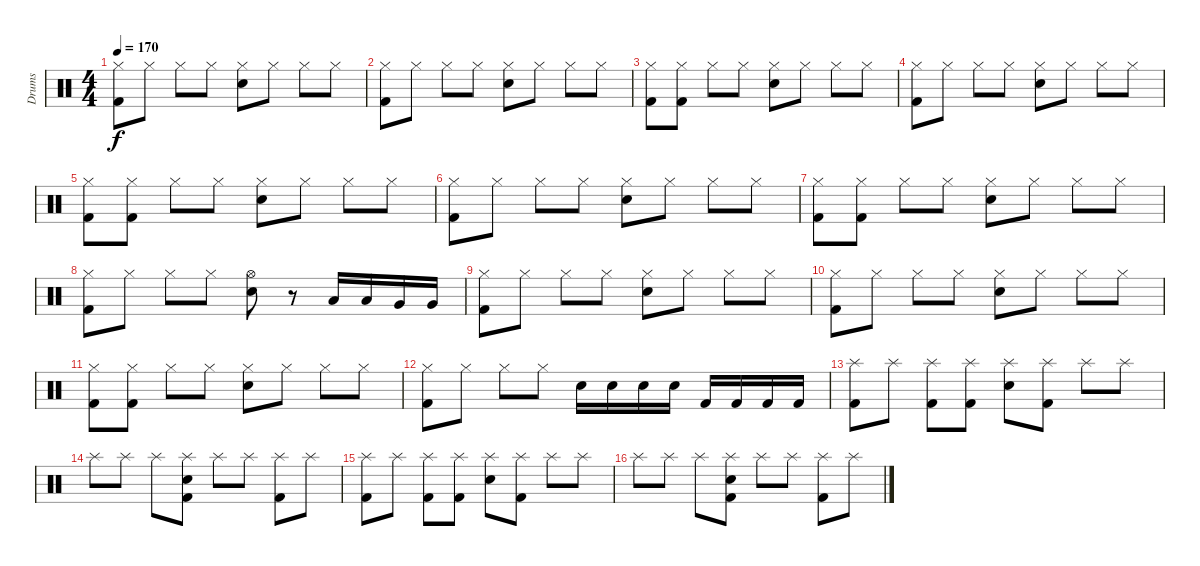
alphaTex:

\track ("Drums" "Drums") {instrument percussion}
\staff {score}
\articulation defaults
\ts (4 4)
\tempo 170
\clef neutral
\ks c
("Hi-Hat (closed)" "Kick (hit) 2").8{dy f} "Hi-Hat (closed)".8 "Hi-Hat (closed)".8 "Hi-Hat (closed)".8 ("Hi-Hat (closed)" "Snare (hit) 2").8 "Hi-Hat (closed)".8 "Hi-Hat (closed)".8 "Hi-Hat (closed)".8 |
("Hi-Hat (closed)" "Kick (hit) 2").8 "Hi-Hat (closed)".8 "Hi-Hat (closed)".8 "Hi-Hat (closed)".8 ("Hi-Hat (closed)" "Snare (hit) 2").8 "Hi-Hat (closed)".8 "Hi-Hat (closed)".8 "Hi-Hat (closed)".8 |
("Hi-Hat (closed)" "Kick (hit) 2").8 ("Hi-Hat (closed)" "Kick (hit) 2").8 "Hi-Hat (closed)".8 "Hi-Hat (closed)".8 ("Hi-Hat (closed)" "Snare (hit) 2").8 "Hi-Hat (closed)".8 "Hi-Hat (closed)".8 "Hi-Hat (closed)".8 |
("Hi-Hat (closed)" "Kick (hit) 2").8 "Hi-Hat (closed)".8 "Hi-Hat (closed)".8 "Hi-Hat (closed)".8 ("Hi-Hat (closed)" "Snare (hit) 2").8 "Hi-Hat (closed)".8 "Hi-Hat (closed)".8 "Hi-Hat (closed)".8 |
("Hi-Hat (closed)" "Kick (hit) 2").8 ("Hi-Hat (closed)" "Kick (hit) 2").8 "Hi-Hat (closed)".8 "Hi-Hat (closed)".8 ("Hi-Hat (closed)" "Snare (hit) 2").8 "Hi-Hat (closed)".8 "Hi-Hat (closed)".8 "Hi-Hat (closed)".8 |
("Hi-Hat (closed)" "Kick (hit) 2").8 "Hi-Hat (closed)".8 "Hi-Hat (closed)".8 "Hi-Hat (closed)".8 ("Hi-Hat (closed)" "Snare (hit) 2").8 "Hi-Hat (closed)".8 "Hi-Hat (closed)".8 "Hi-Hat (closed)".8 |
("Hi-Hat (closed)" "Kick (hit) 2").8 ("Hi-Hat (closed)" "Kick (hit) 2").8 "Hi-Hat (closed)".8 "Hi-Hat (closed)".8 ("Hi-Hat (closed)" "Snare (hit) 2").8 "Hi-Hat (closed)".8 "Hi-Hat (closed)".8 "Hi-Hat (closed)".8 |
("Hi-Hat (closed)" "Kick (hit) 2").8 "Hi-Hat (closed)".8 "Hi-Hat (closed)".8 "Hi-Hat (closed)".8 ("Hi-Hat (open)" "Snare (hit) 2").8 r.8 "Low Tom (hit)".16 "Low Tom (hit)".16 "Very Low Tom (hit)".16 "Very Low Tom (hit)".16 |
("Hi-Hat (closed)" "Kick (hit) 2").8 "Hi-Hat (closed)".8 "Hi-Hat (closed)".8 "Hi-Hat (closed)".8 ("Hi-Hat (closed)" "Snare (hit) 2").8 "Hi-Hat (closed)".8 "Hi-Hat (closed)".8 "Hi-Hat (closed)".8 |
("Hi-Hat (closed)" "Kick (hit) 2").8 "Hi-Hat (closed)".8 "Hi-Hat (closed)".8 "Hi-Hat (closed)".8 ("Hi-Hat (closed)" "Snare (hit) 2").8 "Hi-Hat (closed)".8 "Hi-Hat (closed)".8 "Hi-Hat (closed)".8 |
("Hi-Hat (closed)" "Kick (hit) 2").8 ("Hi-Hat (closed)" "Kick (hit) 2").8 "Hi-Hat (closed)".8 "Hi-Hat (closed)".8 ("Hi-Hat (closed)" "Snare (hit) 2").8 "Hi-Hat (closed)".8 "Hi-Hat (closed)".8 "Hi-Hat (closed)".8 |
("Hi-Hat (closed)" "Kick (hit) 2").8 "Hi-Hat (closed)".8 "Hi-Hat (closed)".8 "Hi-Hat (closed)".8 "Snare (hit) 2".16 "Snare (hit) 2".16 "Snare (hit) 2".16 "Snare (hit) 2".16 "Kick (hit) 2".16 "Kick (hit) 2".16 "Kick (hit) 2".16 "Kick (hit) 2".16 |
("Splash (hit)" "Kick (hit) 2").8 "Splash (hit)".8 ("Splash (hit)" "Kick (hit) 2").8 ("Splash (hit)" "Kick (hit) 2").8 ("Splash (hit)" "Snare (hit) 2").8 ("Splash (hit)" "Kick (hit) 2").8 "Splash (hit)".8 "Splash (hit)".8 |
"Splash (hit)".8 "Splash (hit)".8 "Splash (hit)".8 ("Splash (hit)" "Snare (hit) 2" "Kick (hit) 2").8 "Splash (hit)".8 "Splash (hit)".8 ("Splash (hit)" "Kick (hit) 2").8 "Splash (hit)".8 |
("Splash (hit)" "Kick (hit) 2").8 "Splash (hit)".8 ("Splash (hit)" "Kick (hit) 2").8 ("Splash (hit)" "Kick (hit) 2").8 ("Splash (hit)" "Snare (hit) 2").8 ("Splash (hit)" "Kick (hit) 2").8 "Splash (hit)".8 "Splash (hit)".8 |
"Splash (hit)".8 "Splash (hit)".8 "Splash (hit)".8 ("Splash (hit)" "Snare (hit) 2" "Kick (hit) 2").8 "Splash (hit)".8 "Splash (hit)".8 ("Splash (hit)" "Kick (hit) 2").8 "Splash (hit)".8
